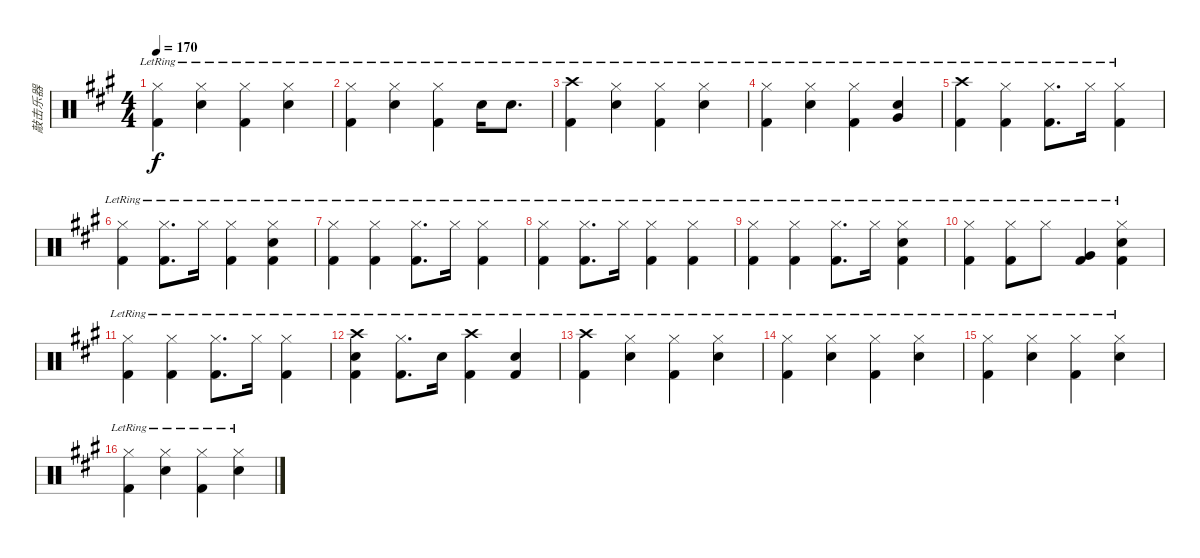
\track ("敲击乐器" "敲击乐器") {instrument percussion}
\staff {score}
\articulation defaults
\ts (4 4)
\tempo 170
\clef neutral
\ks a
("Hi-Hat (closed)"{lr} "Kick (hit) 2"{lr}).4{dy f} ("Hi-Hat (closed)"{lr} "Snare (hit) 2"{lr}).4 ("Hi-Hat (closed)"{lr} "Kick (hit) 2"{lr}).4 ("Hi-Hat (closed)"{lr} "Snare (hit) 2"{lr}).4 |
("Hi-Hat (closed)"{lr} "Kick (hit) 2"{lr}).4 ("Hi-Hat (closed)"{lr} "Snare (hit) 2"{lr}).4 ("Hi-Hat (closed)"{lr} "Kick (hit) 2"{lr}).4 "Snare (hit) 2"{lr}.16 "Snare (hit) 2"{lr}.8{d} |
("Crash high (hit)"{lr} "Kick (hit) 2"{lr}).4 ("Hi-Hat (closed)"{lr} "Snare (hit) 2"{lr}).4 ("Hi-Hat (closed)"{lr} "Kick (hit) 2"{lr}).4 ("Hi-Hat (closed)"{lr} "Snare (hit) 2"{lr}).4 |
("Hi-Hat (closed)"{lr} "Kick (hit) 2"{lr}).4 ("Hi-Hat (closed)"{lr} "Snare (hit) 2"{lr}).4 ("Hi-Hat (closed)"{lr} "Kick (hit) 2"{lr}).4 ("Snare (hit) 2"{lr} "Very Low Tom (hit)"{lr}).4 |
("Crash high (hit)"{lr} "Kick (hit) 2"{lr}).4 ("Hi-Hat (closed)"{lr} "Kick (hit) 2"{lr}).4 ("Hi-Hat (closed)"{lr} "Kick (hit) 2"{lr}).8{d} "Hi-Hat (closed)"{lr}.16 ("Hi-Hat (closed)"{lr} "Kick (hit) 2"{lr}).4 |
("Hi-Hat (closed)"{lr} "Kick (hit) 2"{lr}).4 ("Hi-Hat (closed)"{lr} "Kick (hit) 2"{lr}).8{d} "Hi-Hat (closed)"{lr}.16 ("Hi-Hat (closed)"{lr} "Kick (hit) 2"{lr}).4 ("Hi-Hat (closed)"{lr} "Snare (hit) 2"{lr} "Kick (hit) 2"{lr}).4 |
("Hi-Hat (closed)"{lr} "Kick (hit) 2"{lr}).4 ("Hi-Hat (closed)"{lr} "Kick (hit) 2"{lr}).4 ("Hi-Hat (closed)"{lr} "Kick (hit) 2"{lr}).8{d} "Hi-Hat (closed)"{lr}.16 ("Hi-Hat (closed)"{lr} "Kick (hit) 2"{lr}).4 |
("Hi-Hat (closed)"{lr} "Kick (hit) 2"{lr}).4 ("Hi-Hat (closed)"{lr} "Kick (hit) 2"{lr}).8{d} "Hi-Hat (closed)"{lr}.16 ("Hi-Hat (closed)"{lr} "Kick (hit) 2"{lr}).4 ("Hi-Hat (closed)"{lr} "Kick (hit) 2"{lr}).4 |
("Hi-Hat (closed)"{lr} "Kick (hit) 2"{lr}).4 ("Hi-Hat (closed)"{lr} "Kick (hit) 2"{lr}).4 ("Hi-Hat (closed)"{lr} "Kick (hit) 2"{lr}).8{d} "Hi-Hat (closed)"{lr}.16 ("Hi-Hat (closed)"{lr} "Snare (hit) 2"{lr} "Kick (hit) 2"{lr}).4 |
("Hi-Hat (closed)"{lr} "Kick (hit) 2"{lr}).4 ("Hi-Hat (closed)"{lr} "Kick (hit) 2"{lr}).8 "Hi-Hat (closed)"{lr}.8 ("Very Low Tom (hit)"{lr} "Kick (hit) 2"{lr}).4 ("Hi-Hat (closed)"{lr} "Snare (hit) 2"{lr} "Kick (hit) 2"{lr}).4 |
("Hi-Hat (closed)"{lr} "Kick (hit) 2"{lr}).4 ("Hi-Hat (closed)"{lr} "Kick (hit) 2"{lr}).4 ("Hi-Hat (closed)"{lr} "Kick (hit) 2"{lr}).8{d} "Hi-Hat (closed)"{lr}.16 ("Hi-Hat (closed)"{lr} "Kick (hit) 2"{lr}).4 |
("Crash high (hit)"{lr} "Snare (hit) 2"{lr} "Kick (hit) 2"{lr}).4 ("Hi-Hat (closed)"{lr} "Kick (hit) 2"{lr}).8{d} "Snare (hit) 2"{lr}.16 ("Crash high (hit)"{lr} "Kick (hit) 2"{lr}).4 ("Snare (hit) 2"{lr} "Kick (hit) 2"{lr}).4 |
("Crash high (hit)"{lr} "Kick (hit) 2"{lr}).4 ("Hi-Hat (closed)"{lr} "Snare (hit) 2"{lr}).4 ("Hi-Hat (closed)"{lr} "Kick (hit) 2"{lr}).4 ("Hi-Hat (closed)"{lr} "Snare (hit) 2"{lr}).4 |
("Hi-Hat (closed)"{lr} "Kick (hit) 2"{lr}).4 ("Hi-Hat (closed)"{lr} "Snare (hit) 2"{lr}).4 ("Hi-Hat (closed)"{lr} "Kick (hit) 2"{lr}).4 ("Hi-Hat (closed)"{lr} "Snare (hit) 2"{lr}).4 |
("Hi-Hat (closed)"{lr} "Kick (hit) 2"{lr}).4 ("Hi-Hat (closed)"{lr} "Snare (hit) 2"{lr}).4 ("Hi-Hat (closed)"{lr} "Kick (hit) 2"{lr}).4 ("Hi-Hat (closed)"{lr} "Snare (hit) 2"{lr}).4 |
("Hi-Hat (closed)"{lr} "Kick (hit) 2"{lr}).4 ("Hi-Hat (closed)"{lr} "Snare (hit) 2"{lr}).4 ("Hi-Hat (closed)"{lr} "Kick (hit) 2"{lr}).4 ("Hi-Hat (closed)"{lr} "Snare (hit) 2"{lr}).4
